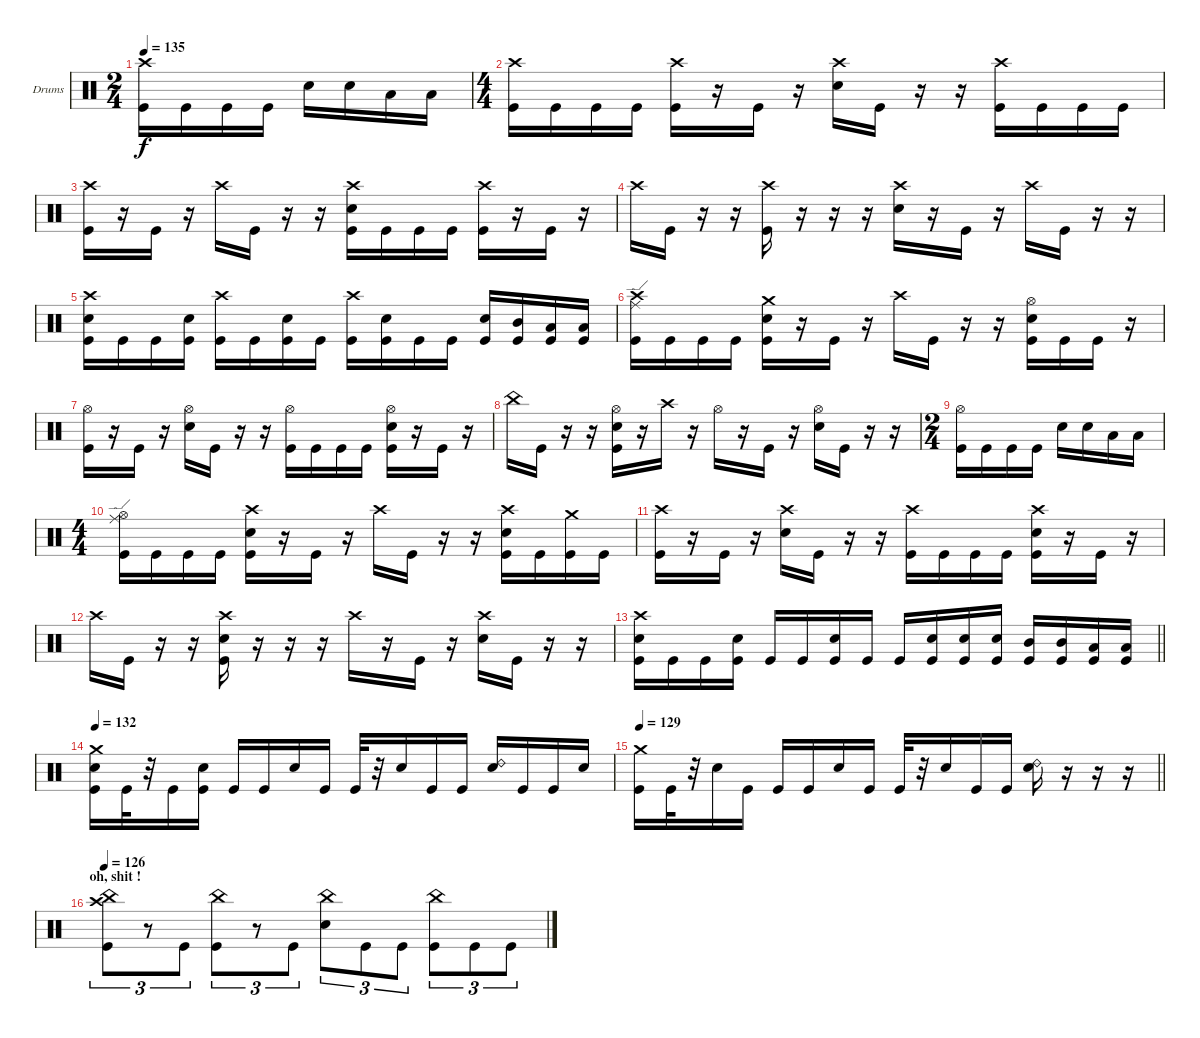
\bracketExtendMode groupsimilarinstruments
\firstSystemTrackNameOrientation horizontal
\otherSystemsTrackNameOrientation horizontal
\track ("Drumkit" "Drums") {instrument percussion}
\staff {score}
\articulation defaults
\ts (2 4)
\tempo 135
\clef neutral
\ks c
("Crash high (hit)" "Kick (hit)").16{dy f} "Kick (hit)".16 "Kick (hit)".16 "Kick (hit)".16 "Snare (hit) 2".16 "Snare (hit) 2".16 "Low Tom (hit)".16 "Low Tom (hit)".16 |
\ts (4 4)
("Crash high (hit)" "Kick (hit)").16 "Kick (hit)".16 "Kick (hit)".16 "Kick (hit)".16 ("Crash high (hit)" "Kick (hit)").16 r.16 "Kick (hit)".16 r.16 ("Crash high (hit)" "Snare (hit) 2").16 "Kick (hit)".16 r.16 r.16 ("Crash high (hit)" "Kick (hit)").16 "Kick (hit)".16 "Kick (hit)".16 "Kick (hit)".16 |
("Crash high (hit)" "Kick (hit)").16 r.16 "Kick (hit)".16 r.16 "Crash high (hit)".16 "Kick (hit)".16 r.16 r.16 ("Crash high (hit)" "Snare (hit) 2" "Kick (hit)").16 "Kick (hit)".16 "Kick (hit)".16 "Kick (hit)".16 ("Crash high (hit)" "Kick (hit)").16 r.16 "Kick (hit)".16 r.16 |
"Crash high (hit)".16 "Kick (hit)".16 r.16 r.16 ("Crash high (hit)" "Kick (hit)").16 r.16 r.16 r.16 ("Crash high (hit)" "Snare (hit) 2").16 r.16 "Kick (hit)".16 r.16 "Crash high (hit)".16 "Kick (hit)".16 r.16 r.16 |
("Crash high (hit)" "Snare (hit) 2" "Kick (hit)").16 "Kick (hit)".16 "Kick (hit)".16 ("Snare (hit) 2" "Kick (hit)").16 ("Crash high (hit)" "Kick (hit)").16 "Kick (hit)".16 ("Snare (hit) 2" "Kick (hit)").16 "Kick (hit)".16 ("Crash high (hit)" "Kick (hit)").16 ("Snare (hit) 2" "Kick (hit)").16 "Kick (hit)".16 "Kick (hit)".16 ("Snare (hit) 2" "Kick (hit)").16 ("Mid Tom (hit)" "Kick (hit)").16 ("Low Tom (hit)" "Kick (hit)").16 ("Low Tom (hit)" "Kick (hit)").16 |
("Crash high (hit)" "Ride (edge)" "Kick (hit)").16 "Kick (hit)".16 "Kick (hit)".16 "Kick (hit)".16 ("Crash medium (hit)" "Snare (hit) 2" "Kick (hit)").16 r.16 "Kick (hit)".16 r.16 "Crash high (hit)".16 "Kick (hit)".16 r.16 r.16 ("Hi-Hat (open)" "Snare (hit) 2" "Kick (hit)").16 "Kick (hit)".16 "Kick (hit)".16 r.16 |
("Hi-Hat (open)" "Kick (hit)").16 r.16 "Kick (hit)".16 r.16 ("Hi-Hat (open)" "Snare (hit) 2").16 "Kick (hit)".16 r.16 r.16 ("Hi-Hat (open)" "Kick (hit)").16 "Kick (hit)".16 "Kick (hit)".16 "Kick (hit)".16 ("Hi-Hat (open)" "Snare (hit) 2" "Kick (hit)").16 r.16 "Kick (hit)".16 r.16 |
"China (hit)".16 "Kick (hit)".16 r.16 r.16 ("Hi-Hat (open)" "Snare (hit) 2" "Kick (hit)").16 r.16 "Crash high (hit)".16 r.16 "Hi-Hat (open)".16 r.16 "Kick (hit)".16 r.16 ("Hi-Hat (open)" "Snare (hit) 2").16 "Kick (hit)".16 r.16 r.16 |
\ts (2 4)
("Hi-Hat (open)" "Kick (hit)").16 "Kick (hit)".16 "Kick (hit)".16 "Kick (hit)".16 "Snare (hit) 2".16 "Snare (hit) 2".16 "Low Tom (hit)".16 "Low Tom (hit)".16 |
\ts (4 4)
("Hi-Hat (open)" "Ride (edge)" "Kick (hit)").16 "Kick (hit)".16 "Kick (hit)".16 "Kick (hit)".16 ("Crash high (hit)" "Snare (hit) 2" "Kick (hit)").16 r.16 "Kick (hit)".16 r.16 "Crash high (hit)".16 "Kick (hit)".16 r.16 r.16 ("Crash high (hit)" "Snare (hit) 2" "Kick (hit)").16 "Kick (hit)".16 ("Crash medium (hit)" "Kick (hit)").16 "Kick (hit)".16 |
("Crash high (hit)" "Kick (hit)").16 r.16 "Kick (hit)".16 r.16 ("Crash high (hit)" "Snare (hit) 2").16 "Kick (hit)".16 r.16 r.16 ("Crash high (hit)" "Kick (hit)").16 "Kick (hit)".16 "Kick (hit)".16 "Kick (hit)".16 ("Crash high (hit)" "Snare (hit) 2" "Kick (hit)").16 r.16 "Kick (hit)".16 r.16 |
"Crash high (hit)".16 "Kick (hit)".16 r.16 r.16 ("Crash high (hit)" "Snare (hit) 2" "Kick (hit)").16 r.16 r.16 r.16 "Crash high (hit)".16 r.16 "Kick (hit)".16 r.16 ("Crash high (hit)" "Snare (hit) 2").16 "Kick (hit)".16 r.16 r.16 |
\barLineRight lightlight
("Crash high (hit)" "Snare (hit) 2" "Kick (hit)").16 "Kick (hit)".16 "Kick (hit)".16 ("Snare (hit) 2" "Kick (hit)").16 "Kick (hit)".16 "Kick (hit)".16 ("Snare (hit) 2" "Kick (hit)").16 "Kick (hit)".16 "Kick (hit)".16 ("Snare (hit) 2" "Kick (hit)").16 ("Snare (hit) 2" "Kick (hit)").16 ("Snare (hit) 2" "Kick (hit)").16 ("Mid Tom (hit)" "Kick (hit)").16 ("Mid Tom (hit)" "Kick (hit)").16 ("Low Tom (hit)" "Kick (hit)").16 ("Low Tom (hit)" "Kick (hit)").16 |
\tempo 132
("Crash medium (hit)" "Snare (hit) 2" "Kick (hit)").16 "Kick (hit)".32 r.32 "Kick (hit)".16 ("Snare (hit) 2" "Kick (hit)").16 "Kick (hit)".16 "Kick (hit)".16 "Snare (hit) 2".16 "Kick (hit)".16 "Kick (hit)".32 r.32 "Snare (hit) 2".16 "Kick (hit)".16 "Kick (hit)".16 ("Ride (bell) 2" "Snare (hit) 2").16 "Kick (hit)".16 "Kick (hit)".16 "Snare (hit) 2".16 |
\tempo 129
\barLineRight lightlight
("Crash medium (hit)" "Kick (hit)").16 "Kick (hit)".32 r.32 "Snare (hit) 2".16 "Kick (hit)".16 "Kick (hit)".16 "Kick (hit)".16 "Snare (hit) 2".16 "Kick (hit)".16 "Kick (hit)".32 r.32 "Snare (hit) 2".16 "Kick (hit)".16 "Kick (hit)".16 ("Ride (bell) 2" "Snare (hit) 2").16 r.16 r.16 r.16 |
\section ("" "oh, shit !")
\tempo 126
("China (hit)" "Crash high (hit)" "Kick (hit)").8{tu (3 2)} r.8{tu (3 2)} "Kick (hit)".8{tu (3 2)} ("China (hit)" "Kick (hit)").8{tu (3 2)} r.8{tu (3 2)} "Kick (hit)".8{tu (3 2)} ("China (hit)" "Snare (hit) 2").8{tu (3 2)} "Kick (hit)".8{tu (3 2)} "Kick (hit)".8{tu (3 2)} ("China (hit)" "Kick (hit)").8{tu (3 2)} "Kick (hit)".8{tu (3 2)} "Kick (hit)".8{tu (3 2)}
